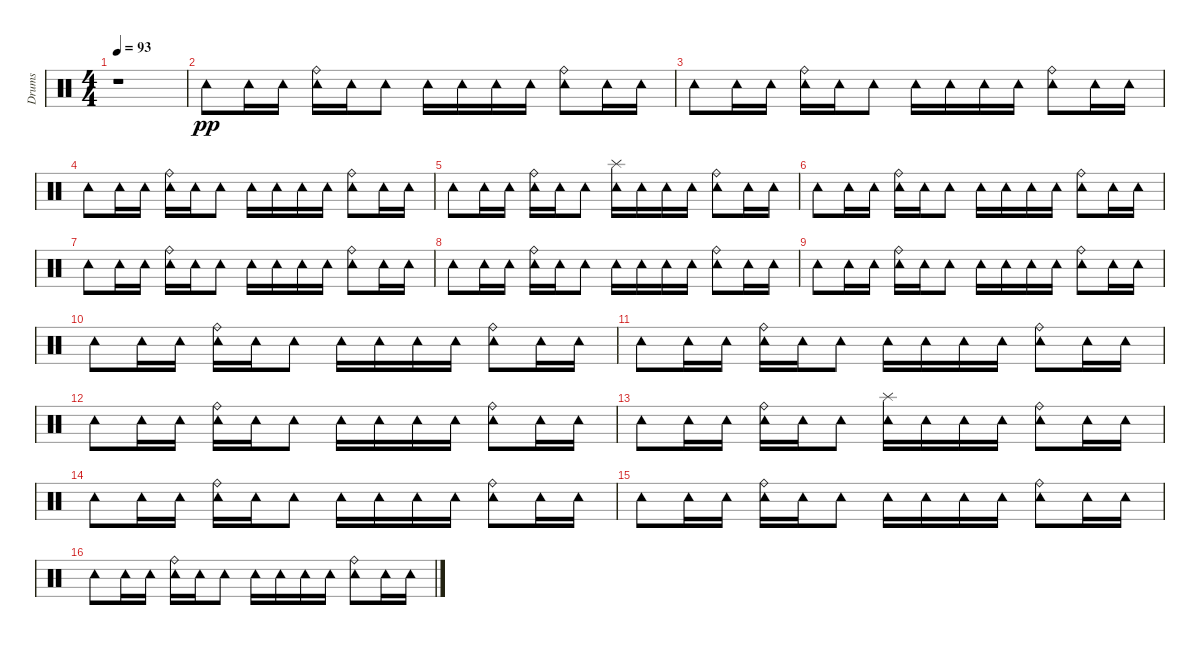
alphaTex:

\track ("Drums" "Drums") {instrument percussion}
\staff {score}
\articulation defaults
\ts (4 4)
\tempo 93
\clef neutral
\ks c
r.1{dy pp} |
"Tambourine (hit)".8 "Tambourine (hit)".16 "Tambourine (hit)".16 ("Tambourine (hit)" "Ride (bell)").16 "Tambourine (hit)".16 "Tambourine (hit)".8 "Tambourine (hit)".16 "Tambourine (hit)".16 "Tambourine (hit)".16 "Tambourine (hit)".16 ("Tambourine (hit)" "Ride (bell)").8 "Tambourine (hit)".16 "Tambourine (hit)".16 |
"Tambourine (hit)".8 "Tambourine (hit)".16 "Tambourine (hit)".16 ("Tambourine (hit)" "Ride (bell)").16 "Tambourine (hit)".16 "Tambourine (hit)".8 "Tambourine (hit)".16 "Tambourine (hit)".16 "Tambourine (hit)".16 "Tambourine (hit)".16 ("Tambourine (hit)" "Ride (bell)").8 "Tambourine (hit)".16 "Tambourine (hit)".16 |
"Tambourine (hit)".8 "Tambourine (hit)".16 "Tambourine (hit)".16 ("Tambourine (hit)" "Ride (bell)").16 "Tambourine (hit)".16 "Tambourine (hit)".8 "Tambourine (hit)".16 "Tambourine (hit)".16 "Tambourine (hit)".16 "Tambourine (hit)".16 ("Tambourine (hit)" "Ride (bell)").8 "Tambourine (hit)".16 "Tambourine (hit)".16 |
"Tambourine (hit)".8 "Tambourine (hit)".16 "Tambourine (hit)".16 ("Tambourine (hit)" "Ride (bell)").16 "Tambourine (hit)".16 "Tambourine (hit)".8 ("Tambourine (hit)" "Splash (hit)").16 "Tambourine (hit)".16 "Tambourine (hit)".16 "Tambourine (hit)".16 ("Tambourine (hit)" "Ride (bell)").8 "Tambourine (hit)".16 "Tambourine (hit)".16 |
"Tambourine (hit)".8 "Tambourine (hit)".16 "Tambourine (hit)".16 ("Tambourine (hit)" "Ride (bell)").16 "Tambourine (hit)".16 "Tambourine (hit)".8 "Tambourine (hit)".16 "Tambourine (hit)".16 "Tambourine (hit)".16 "Tambourine (hit)".16 ("Tambourine (hit)" "Ride (bell)").8 "Tambourine (hit)".16 "Tambourine (hit)".16 |
"Tambourine (hit)".8 "Tambourine (hit)".16 "Tambourine (hit)".16 ("Tambourine (hit)" "Ride (bell)").16 "Tambourine (hit)".16 "Tambourine (hit)".8 "Tambourine (hit)".16 "Tambourine (hit)".16 "Tambourine (hit)".16 "Tambourine (hit)".16 ("Tambourine (hit)" "Ride (bell)").8 "Tambourine (hit)".16 "Tambourine (hit)".16 |
"Tambourine (hit)".8 "Tambourine (hit)".16 "Tambourine (hit)".16 ("Tambourine (hit)" "Ride (bell)").16 "Tambourine (hit)".16 "Tambourine (hit)".8 "Tambourine (hit)".16 "Tambourine (hit)".16 "Tambourine (hit)".16 "Tambourine (hit)".16 ("Tambourine (hit)" "Ride (bell)").8 "Tambourine (hit)".16 "Tambourine (hit)".16 |
"Tambourine (hit)".8 "Tambourine (hit)".16 "Tambourine (hit)".16 ("Tambourine (hit)" "Ride (bell)").16 "Tambourine (hit)".16 "Tambourine (hit)".8 "Tambourine (hit)".16 "Tambourine (hit)".16 "Tambourine (hit)".16 "Tambourine (hit)".16 ("Tambourine (hit)" "Ride (bell)").8 "Tambourine (hit)".16 "Tambourine (hit)".16 |
"Tambourine (hit)".8 "Tambourine (hit)".16 "Tambourine (hit)".16 ("Tambourine (hit)" "Ride (bell)").16 "Tambourine (hit)".16 "Tambourine (hit)".8 "Tambourine (hit)".16 "Tambourine (hit)".16 "Tambourine (hit)".16 "Tambourine (hit)".16 ("Tambourine (hit)" "Ride (bell)").8 "Tambourine (hit)".16 "Tambourine (hit)".16 |
"Tambourine (hit)".8 "Tambourine (hit)".16 "Tambourine (hit)".16 ("Tambourine (hit)" "Ride (bell)").16 "Tambourine (hit)".16 "Tambourine (hit)".8 "Tambourine (hit)".16 "Tambourine (hit)".16 "Tambourine (hit)".16 "Tambourine (hit)".16 ("Tambourine (hit)" "Ride (bell)").8 "Tambourine (hit)".16 "Tambourine (hit)".16 |
"Tambourine (hit)".8 "Tambourine (hit)".16 "Tambourine (hit)".16 ("Tambourine (hit)" "Ride (bell)").16 "Tambourine (hit)".16 "Tambourine (hit)".8 "Tambourine (hit)".16 "Tambourine (hit)".16 "Tambourine (hit)".16 "Tambourine (hit)".16 ("Tambourine (hit)" "Ride (bell)").8 "Tambourine (hit)".16 "Tambourine (hit)".16 |
"Tambourine (hit)".8 "Tambourine (hit)".16 "Tambourine (hit)".16 ("Tambourine (hit)" "Ride (bell)").16 "Tambourine (hit)".16 "Tambourine (hit)".8 ("Tambourine (hit)" "Splash (hit)").16 "Tambourine (hit)".16 "Tambourine (hit)".16 "Tambourine (hit)".16 ("Tambourine (hit)" "Ride (bell)").8 "Tambourine (hit)".16 "Tambourine (hit)".16 |
"Tambourine (hit)".8 "Tambourine (hit)".16 "Tambourine (hit)".16 ("Tambourine (hit)" "Ride (bell)").16 "Tambourine (hit)".16 "Tambourine (hit)".8 "Tambourine (hit)".16 "Tambourine (hit)".16 "Tambourine (hit)".16 "Tambourine (hit)".16 ("Tambourine (hit)" "Ride (bell)").8 "Tambourine (hit)".16 "Tambourine (hit)".16 |
"Tambourine (hit)".8 "Tambourine (hit)".16 "Tambourine (hit)".16 ("Tambourine (hit)" "Ride (bell)").16 "Tambourine (hit)".16 "Tambourine (hit)".8 "Tambourine (hit)".16 "Tambourine (hit)".16 "Tambourine (hit)".16 "Tambourine (hit)".16 ("Tambourine (hit)" "Ride (bell)").8 "Tambourine (hit)".16 "Tambourine (hit)".16 |
"Tambourine (hit)".8 "Tambourine (hit)".16 "Tambourine (hit)".16 ("Tambourine (hit)" "Ride (bell)").16 "Tambourine (hit)".16 "Tambourine (hit)".8 "Tambourine (hit)".16 "Tambourine (hit)".16 "Tambourine (hit)".16 "Tambourine (hit)".16 ("Tambourine (hit)" "Ride (bell)").8 "Tambourine (hit)".16 "Tambourine (hit)".16
